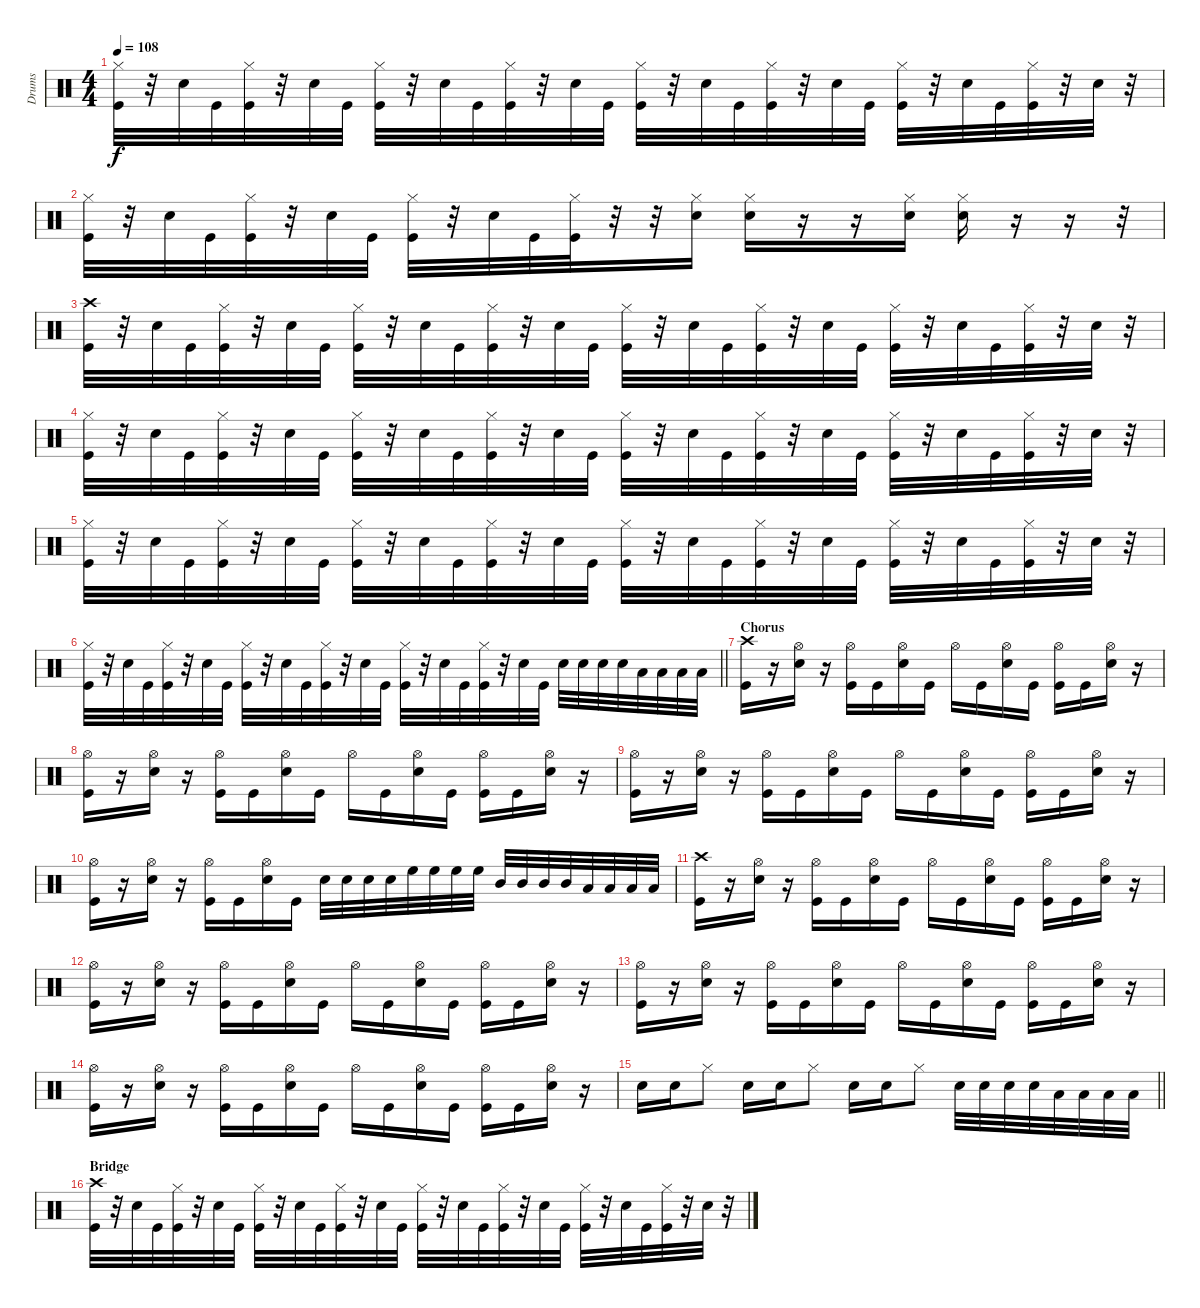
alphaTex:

\track ("Drums" "Drums") {instrument percussion}
\staff {score}
\articulation defaults
\ts (4 4)
\tempo 108
\clef neutral
\ks c
("Hi-Hat (closed)" "Kick (hit)").32{dy f} r.32 "Snare (hit) 2".32 "Kick (hit)".32 ("Hi-Hat (closed)" "Kick (hit)").32 r.32 "Snare (hit) 2".32 "Kick (hit)".32 ("Hi-Hat (closed)" "Kick (hit)").32 r.32 "Snare (hit) 2".32 "Kick (hit)".32 ("Hi-Hat (closed)" "Kick (hit)").32 r.32 "Snare (hit) 2".32 "Kick (hit)".32 ("Hi-Hat (closed)" "Kick (hit)").32 r.32 "Snare (hit) 2".32 "Kick (hit)".32 ("Hi-Hat (closed)" "Kick (hit)").32 r.32 "Snare (hit) 2".32 "Kick (hit)".32 ("Hi-Hat (closed)" "Kick (hit)").32 r.32 "Snare (hit) 2".32 "Kick (hit)".32 ("Hi-Hat (closed)" "Kick (hit)").32 r.32 "Snare (hit) 2".32 r.32 |
("Hi-Hat (closed)" "Kick (hit)").32 r.32 "Snare (hit) 2".32 "Kick (hit)".32 ("Hi-Hat (closed)" "Kick (hit)").32 r.32 "Snare (hit) 2".32 "Kick (hit)".32 ("Hi-Hat (closed)" "Kick (hit)").32 r.32 "Snare (hit) 2".32 "Kick (hit)".32 ("Hi-Hat (closed)" "Kick (hit)").32 r.32 r.32 ("Hi-Hat (closed)" "Snare (hit) 2").16 ("Hi-Hat (closed)" "Snare (hit) 2").16 r.16 r.16 ("Hi-Hat (closed)" "Snare (hit) 2").16 ("Hi-Hat (closed)" "Snare (hit) 2").16 r.16 r.16 r.32 |
("Crash high (hit)" "Kick (hit)").32 r.32 "Snare (hit) 2".32 "Kick (hit)".32 ("Hi-Hat (closed)" "Kick (hit)").32 r.32 "Snare (hit) 2".32 "Kick (hit)".32 ("Hi-Hat (closed)" "Kick (hit)").32 r.32 "Snare (hit) 2".32 "Kick (hit)".32 ("Hi-Hat (closed)" "Kick (hit)").32 r.32 "Snare (hit) 2".32 "Kick (hit)".32 ("Hi-Hat (closed)" "Kick (hit)").32 r.32 "Snare (hit) 2".32 "Kick (hit)".32 ("Hi-Hat (closed)" "Kick (hit)").32 r.32 "Snare (hit) 2".32 "Kick (hit)".32 ("Hi-Hat (closed)" "Kick (hit)").32 r.32 "Snare (hit) 2".32 "Kick (hit)".32 ("Hi-Hat (closed)" "Kick (hit)").32 r.32 "Snare (hit) 2".32 r.32 |
("Hi-Hat (closed)" "Kick (hit)").32 r.32 "Snare (hit) 2".32 "Kick (hit)".32 ("Hi-Hat (closed)" "Kick (hit)").32 r.32 "Snare (hit) 2".32 "Kick (hit)".32 ("Hi-Hat (closed)" "Kick (hit)").32 r.32 "Snare (hit) 2".32 "Kick (hit)".32 ("Hi-Hat (closed)" "Kick (hit)").32 r.32 "Snare (hit) 2".32 "Kick (hit)".32 ("Hi-Hat (closed)" "Kick (hit)").32 r.32 "Snare (hit) 2".32 "Kick (hit)".32 ("Hi-Hat (closed)" "Kick (hit)").32 r.32 "Snare (hit) 2".32 "Kick (hit)".32 ("Hi-Hat (closed)" "Kick (hit)").32 r.32 "Snare (hit) 2".32 "Kick (hit)".32 ("Hi-Hat (closed)" "Kick (hit)").32 r.32 "Snare (hit) 2".32 r.32 |
("Hi-Hat (closed)" "Kick (hit)").32 r.32 "Snare (hit) 2".32 "Kick (hit)".32 ("Hi-Hat (closed)" "Kick (hit)").32 r.32 "Snare (hit) 2".32 "Kick (hit)".32 ("Hi-Hat (closed)" "Kick (hit)").32 r.32 "Snare (hit) 2".32 "Kick (hit)".32 ("Hi-Hat (closed)" "Kick (hit)").32 r.32 "Snare (hit) 2".32 "Kick (hit)".32 ("Hi-Hat (closed)" "Kick (hit)").32 r.32 "Snare (hit) 2".32 "Kick (hit)".32 ("Hi-Hat (closed)" "Kick (hit)").32 r.32 "Snare (hit) 2".32 "Kick (hit)".32 ("Hi-Hat (closed)" "Kick (hit)").32 r.32 "Snare (hit) 2".32 "Kick (hit)".32 ("Hi-Hat (closed)" "Kick (hit)").32 r.32 "Snare (hit) 2".32 r.32 |
\barLineRight lightlight
("Hi-Hat (closed)" "Kick (hit)").32 r.32 "Snare (hit) 2".32 "Kick (hit)".32 ("Hi-Hat (closed)" "Kick (hit)").32 r.32 "Snare (hit) 2".32 "Kick (hit)".32 ("Hi-Hat (closed)" "Kick (hit)").32 r.32 "Snare (hit) 2".32 "Kick (hit)".32 ("Hi-Hat (closed)" "Kick (hit)").32 r.32 "Snare (hit) 2".32 "Kick (hit)".32 ("Hi-Hat (closed)" "Kick (hit)").32 r.32 "Snare (hit) 2".32 "Kick (hit)".32 ("Hi-Hat (closed)" "Kick (hit)").32 r.32 "Snare (hit) 2".32 "Kick (hit)".32 "Snare (hit) 2".32 "Snare (hit) 2".32 "Snare (hit) 2".32 "Snare (hit) 2".32 "Low Tom (hit)".32 "Low Tom (hit)".32 "Low Tom (hit)".32 "Low Tom (hit)".32 |
\section ("" "Chorus")
("Crash high (hit)" "Kick (hit)").16 r.16 ("Hi-Hat (open)" "Snare (hit) 2").16 r.16 ("Hi-Hat (open)" "Kick (hit)").16 "Kick (hit)".16 ("Hi-Hat (open)" "Snare (hit) 2").16 "Kick (hit)".16 "Hi-Hat (open)".16 "Kick (hit)".16 ("Hi-Hat (open)" "Snare (hit) 2").16 "Kick (hit)".16 ("Hi-Hat (open)" "Kick (hit)").16 "Kick (hit)".16 ("Hi-Hat (open)" "Snare (hit) 2").16 r.16 |
("Hi-Hat (open)" "Kick (hit)").16 r.16 ("Hi-Hat (open)" "Snare (hit) 2").16 r.16 ("Hi-Hat (open)" "Kick (hit)").16 "Kick (hit)".16 ("Hi-Hat (open)" "Snare (hit) 2").16 "Kick (hit)".16 "Hi-Hat (open)".16 "Kick (hit)".16 ("Hi-Hat (open)" "Snare (hit) 2").16 "Kick (hit)".16 ("Hi-Hat (open)" "Kick (hit)").16 "Kick (hit)".16 ("Hi-Hat (open)" "Snare (hit) 2").16 r.16 |
("Hi-Hat (open)" "Kick (hit)").16 r.16 ("Hi-Hat (open)" "Snare (hit) 2").16 r.16 ("Hi-Hat (open)" "Kick (hit)").16 "Kick (hit)".16 ("Hi-Hat (open)" "Snare (hit) 2").16 "Kick (hit)".16 "Hi-Hat (open)".16 "Kick (hit)".16 ("Hi-Hat (open)" "Snare (hit) 2").16 "Kick (hit)".16 ("Hi-Hat (open)" "Kick (hit)").16 "Kick (hit)".16 ("Hi-Hat (open)" "Snare (hit) 2").16 r.16 |
("Hi-Hat (open)" "Kick (hit)").16 r.16 ("Hi-Hat (open)" "Snare (hit) 2").16 r.16 ("Hi-Hat (open)" "Kick (hit)").16 "Kick (hit)".16 ("Hi-Hat (open)" "Snare (hit) 2").16 "Kick (hit)".16 "Snare (hit) 2".32 "Snare (hit) 2".32 "Snare (hit) 2".32 "Snare (hit) 2".32 "High Floor Tom (hit)".32 "High Floor Tom (hit)".32 "High Floor Tom (hit)".32 "High Floor Tom (hit)".32 "Mid Tom (hit)".32 "Mid Tom (hit)".32 "Mid Tom (hit)".32 "Mid Tom (hit)".32 "Low Tom (hit)".32 "Low Tom (hit)".32 "Low Tom (hit)".32 "Low Tom (hit)".32 |
("Crash high (hit)" "Kick (hit)").16 r.16 ("Hi-Hat (open)" "Snare (hit) 2").16 r.16 ("Hi-Hat (open)" "Kick (hit)").16 "Kick (hit)".16 ("Hi-Hat (open)" "Snare (hit) 2").16 "Kick (hit)".16 "Hi-Hat (open)".16 "Kick (hit)".16 ("Hi-Hat (open)" "Snare (hit) 2").16 "Kick (hit)".16 ("Hi-Hat (open)" "Kick (hit)").16 "Kick (hit)".16 ("Hi-Hat (open)" "Snare (hit) 2").16 r.16 |
("Hi-Hat (open)" "Kick (hit)").16 r.16 ("Hi-Hat (open)" "Snare (hit) 2").16 r.16 ("Hi-Hat (open)" "Kick (hit)").16 "Kick (hit)".16 ("Hi-Hat (open)" "Snare (hit) 2").16 "Kick (hit)".16 "Hi-Hat (open)".16 "Kick (hit)".16 ("Hi-Hat (open)" "Snare (hit) 2").16 "Kick (hit)".16 ("Hi-Hat (open)" "Kick (hit)").16 "Kick (hit)".16 ("Hi-Hat (open)" "Snare (hit) 2").16 r.16 |
("Hi-Hat (open)" "Kick (hit)").16 r.16 ("Hi-Hat (open)" "Snare (hit) 2").16 r.16 ("Hi-Hat (open)" "Kick (hit)").16 "Kick (hit)".16 ("Hi-Hat (open)" "Snare (hit) 2").16 "Kick (hit)".16 "Hi-Hat (open)".16 "Kick (hit)".16 ("Hi-Hat (open)" "Snare (hit) 2").16 "Kick (hit)".16 ("Hi-Hat (open)" "Kick (hit)").16 "Kick (hit)".16 ("Hi-Hat (open)" "Snare (hit) 2").16 r.16 |
("Hi-Hat (open)" "Kick (hit)").16 r.16 ("Hi-Hat (open)" "Snare (hit) 2").16 r.16 ("Hi-Hat (open)" "Kick (hit)").16 "Kick (hit)".16 ("Hi-Hat (open)" "Snare (hit) 2").16 "Kick (hit)".16 "Hi-Hat (open)".16 "Kick (hit)".16 ("Hi-Hat (open)" "Snare (hit) 2").16 "Kick (hit)".16 ("Hi-Hat (open)" "Kick (hit)").16 "Kick (hit)".16 ("Hi-Hat (open)" "Snare (hit) 2").16 r.16 |
\barLineRight lightlight "Snare (hit) 2".16 "Snare (hit) 2".16 "Hi-Hat (closed)".8 "Snare (hit) 2".16 "Snare (hit) 2".16 "Hi-Hat (closed)".8 "Snare (hit) 2".16 "Snare (hit) 2".16 "Hi-Hat (closed)".8 "Snare (hit) 2".32 "Snare (hit) 2".32 "Snare (hit) 2".32 "Snare (hit) 2".32 "Low Tom (hit)".32 "Low Tom (hit)".32 "Low Tom (hit)".32 "Low Tom (hit)".32
|
\section ("" "Bridge")
("Crash high (hit)" "Kick (hit)").32 r.32 "Snare (hit) 2".32 "Kick (hit)".32 ("Hi-Hat (closed)" "Kick (hit)").32 r.32 "Snare (hit) 2".32 "Kick (hit)".32 ("Hi-Hat (closed)" "Kick (hit)").32 r.32 "Snare (hit) 2".32 "Kick (hit)".32 ("Hi-Hat (closed)" "Kick (hit)").32 r.32 "Snare (hit) 2".32 "Kick (hit)".32 ("Hi-Hat (closed)" "Kick (hit)").32 r.32 "Snare (hit) 2".32 "Kick (hit)".32 ("Hi-Hat (closed)" "Kick (hit)").32 r.32 "Snare (hit) 2".32 "Kick (hit)".32 ("Hi-Hat (closed)" "Kick (hit)").32 r.32 "Electric Snare (hit)".32 "Kick (hit)".32 ("Hi-Hat (closed)" "Kick (hit)").32 r.32 "Electric Snare (hit)".32 r.32
